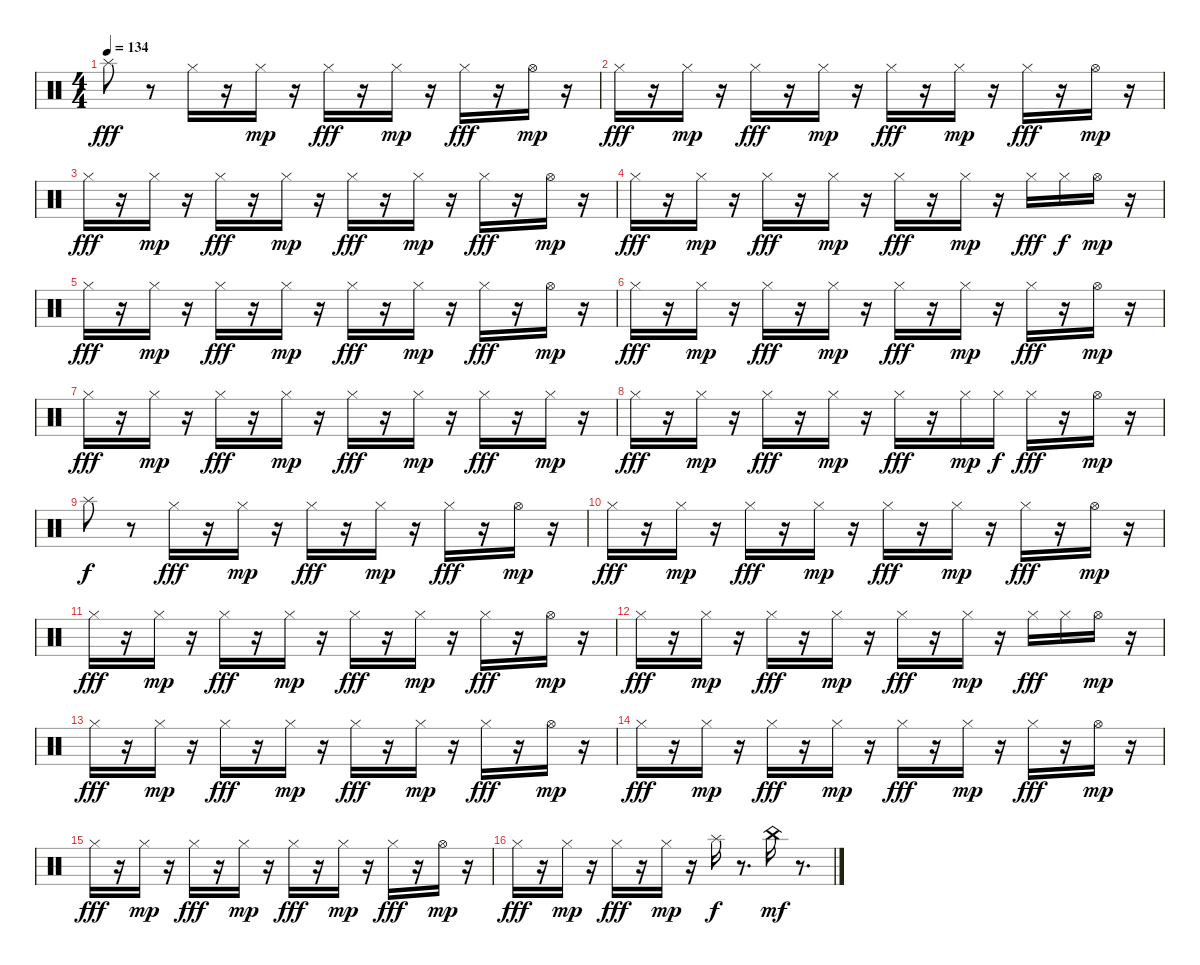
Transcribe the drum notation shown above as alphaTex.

\track "" {instrument percussion}
\staff {score}
\articulation defaults
\ts (4 4)
\tempo 134
\clef neutral
\ks c "Splash (hit)".8{dy fff}
r.8 "Hi-Hat (closed)".16 r.16 "Hi-Hat (closed)".16{dy mp} r.16 "Hi-Hat (closed)".16{dy fff} r.16 "Hi-Hat (closed)".16{dy mp} r.16 "Hi-Hat (closed)".16{dy fff} r.16 "Hi-Hat (open)".16{dy mp} r.16 |
"Hi-Hat (closed)".16{dy fff} r.16 "Hi-Hat (closed)".16{dy mp} r.16 "Hi-Hat (closed)".16{dy fff} r.16 "Hi-Hat (closed)".16{dy mp} r.16 "Hi-Hat (closed)".16{dy fff} r.16 "Hi-Hat (closed)".16{dy mp} r.16 "Hi-Hat (closed)".16{dy fff} r.16 "Hi-Hat (open)".16{dy mp} r.16 |
"Hi-Hat (closed)".16{dy fff} r.16 "Hi-Hat (closed)".16{dy mp} r.16 "Hi-Hat (closed)".16{dy fff} r.16 "Hi-Hat (closed)".16{dy mp} r.16 "Hi-Hat (closed)".16{dy fff} r.16 "Hi-Hat (closed)".16{dy mp} r.16 "Hi-Hat (closed)".16{dy fff} r.16 "Hi-Hat (open)".16{dy mp} r.16 |
"Hi-Hat (closed)".16{dy fff} r.16 "Hi-Hat (closed)".16{dy mp} r.16 "Hi-Hat (closed)".16{dy fff} r.16 "Hi-Hat (closed)".16{dy mp} r.16 "Hi-Hat (closed)".16{dy fff} r.16 "Hi-Hat (closed)".16{dy mp} r.16 "Hi-Hat (closed)".16{dy fff} "Hi-Hat (closed)".16{dy f} "Hi-Hat (open)".16{dy mp} r.16 |
"Hi-Hat (closed)".16{dy fff} r.16 "Hi-Hat (closed)".16{dy mp} r.16 "Hi-Hat (closed)".16{dy fff} r.16 "Hi-Hat (closed)".16{dy mp} r.16 "Hi-Hat (closed)".16{dy fff} r.16 "Hi-Hat (closed)".16{dy mp} r.16 "Hi-Hat (closed)".16{dy fff} r.16 "Hi-Hat (open)".16{dy mp} r.16 |
"Hi-Hat (closed)".16{dy fff} r.16 "Hi-Hat (closed)".16{dy mp} r.16 "Hi-Hat (closed)".16{dy fff} r.16 "Hi-Hat (closed)".16{dy mp} r.16 "Hi-Hat (closed)".16{dy fff} r.16 "Hi-Hat (closed)".16{dy mp} r.16 "Hi-Hat (closed)".16{dy fff} r.16 "Hi-Hat (open)".16{dy mp} r.16 |
"Hi-Hat (closed)".16{dy fff} r.16 "Hi-Hat (closed)".16{dy mp} r.16 "Hi-Hat (closed)".16{dy fff} r.16 "Hi-Hat (closed)".16{dy mp} r.16 "Hi-Hat (closed)".16{dy fff} r.16 "Hi-Hat (closed)".16{dy mp} r.16 "Hi-Hat (closed)".16{dy fff} r.16 "Hi-Hat (closed)".16{dy mp} r.16 |
"Hi-Hat (closed)".16{dy fff} r.16 "Hi-Hat (closed)".16{dy mp} r.16 "Hi-Hat (closed)".16{dy fff} r.16 "Hi-Hat (closed)".16{dy mp} r.16 "Hi-Hat (closed)".16{dy fff} r.16 "Hi-Hat (closed)".16{dy mp} "Hi-Hat (closed)".16{dy f} "Hi-Hat (closed)".16{dy fff} r.16 "Hi-Hat (open)".16{dy mp} r.16 |
"Splash (hit)".8{dy f} r.8 "Hi-Hat (closed)".16{dy fff} r.16 "Hi-Hat (closed)".16{dy mp} r.16 "Hi-Hat (closed)".16{dy fff} r.16 "Hi-Hat (closed)".16{dy mp} r.16 "Hi-Hat (closed)".16{dy fff} r.16 "Hi-Hat (open)".16{dy mp} r.16 |
"Hi-Hat (closed)".16{dy fff} r.16 "Hi-Hat (closed)".16{dy mp} r.16 "Hi-Hat (closed)".16{dy fff} r.16 "Hi-Hat (closed)".16{dy mp} r.16 "Hi-Hat (closed)".16{dy fff} r.16 "Hi-Hat (closed)".16{dy mp} r.16 "Hi-Hat (closed)".16{dy fff} r.16 "Hi-Hat (open)".16{dy mp} r.16 |
"Hi-Hat (closed)".16{dy fff} r.16 "Hi-Hat (closed)".16{dy mp} r.16 "Hi-Hat (closed)".16{dy fff} r.16 "Hi-Hat (closed)".16{dy mp} r.16 "Hi-Hat (closed)".16{dy fff} r.16 "Hi-Hat (closed)".16{dy mp} r.16 "Hi-Hat (closed)".16{dy fff} r.16 "Hi-Hat (open)".16{dy mp} r.16 |
"Hi-Hat (closed)".16{dy fff} r.16 "Hi-Hat (closed)".16{dy mp} r.16 "Hi-Hat (closed)".16{dy fff} r.16 "Hi-Hat (closed)".16{dy mp} r.16 "Hi-Hat (closed)".16{dy fff} r.16 "Hi-Hat (closed)".16{dy mp} r.16 "Hi-Hat (closed)".16{dy fff} "Hi-Hat (closed)".16 "Hi-Hat (open)".16{dy mp} r.16 |
"Hi-Hat (closed)".16{dy fff} r.16 "Hi-Hat (closed)".16{dy mp} r.16 "Hi-Hat (closed)".16{dy fff} r.16 "Hi-Hat (closed)".16{dy mp} r.16 "Hi-Hat (closed)".16{dy fff} r.16 "Hi-Hat (closed)".16{dy mp} r.16 "Hi-Hat (closed)".16{dy fff} r.16 "Hi-Hat (open)".16{dy mp} r.16 |
"Hi-Hat (closed)".16{dy fff} r.16 "Hi-Hat (closed)".16{dy mp} r.16 "Hi-Hat (closed)".16{dy fff} r.16 "Hi-Hat (closed)".16{dy mp} r.16 "Hi-Hat (closed)".16{dy fff} r.16 "Hi-Hat (closed)".16{dy mp} r.16 "Hi-Hat (closed)".16{dy fff} r.16 "Hi-Hat (open)".16{dy mp} r.16 |
"Hi-Hat (closed)".16{dy fff} r.16 "Hi-Hat (closed)".16{dy mp} r.16 "Hi-Hat (closed)".16{dy fff} r.16 "Hi-Hat (closed)".16{dy mp} r.16 "Hi-Hat (closed)".16{dy fff} r.16 "Hi-Hat (closed)".16{dy mp} r.16 "Hi-Hat (closed)".16{dy fff} r.16 "Hi-Hat (open)".16{dy mp} r.16 |
"Hi-Hat (closed)".16{dy fff} r.16 "Hi-Hat (closed)".16{dy mp} r.16 "Hi-Hat (closed)".16{dy fff} r.16 "Hi-Hat (closed)".16{dy mp} r.16 "Splash (hit)".16{dy f} r.8{d} "China (hit)".16{dy mf} r.8{d}
